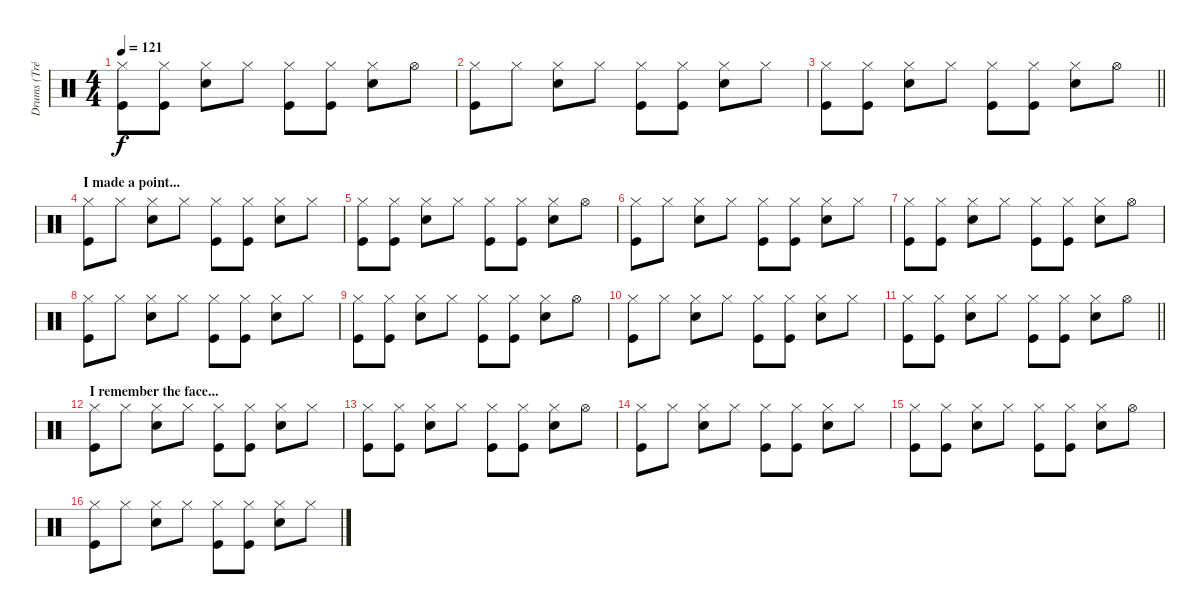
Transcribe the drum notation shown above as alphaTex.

\track ("Drums (Tré)" "Drums (Tré") {instrument percussion}
\staff {score}
\articulation defaults
\ts (4 4)
\tempo 121
\clef neutral
\ks c
("Hi-Hat (closed)" "Kick (hit)").8{dy f} ("Hi-Hat (closed)" "Kick (hit)").8 ("Hi-Hat (closed)" "Snare (hit) 2").8 "Hi-Hat (closed)".8 ("Hi-Hat (closed)" "Kick (hit)").8 ("Hi-Hat (closed)" "Kick (hit)").8 ("Hi-Hat (closed)" "Snare (hit) 2").8 "Hi-Hat (open)".8 |
("Hi-Hat (closed)" "Kick (hit)").8 "Hi-Hat (closed)".8 ("Hi-Hat (closed)" "Snare (hit) 2").8 "Hi-Hat (closed)".8 ("Hi-Hat (closed)" "Kick (hit)").8 ("Hi-Hat (closed)" "Kick (hit)").8 ("Hi-Hat (closed)" "Snare (hit) 2").8 "Hi-Hat (closed)".8 |
\barLineRight lightlight
("Hi-Hat (closed)" "Kick (hit)").8 ("Hi-Hat (closed)" "Kick (hit)").8 ("Hi-Hat (closed)" "Snare (hit) 2").8 "Hi-Hat (closed)".8 ("Hi-Hat (closed)" "Kick (hit)").8 ("Hi-Hat (closed)" "Kick (hit)").8 ("Hi-Hat (closed)" "Snare (hit) 2").8 "Hi-Hat (open)".8 |
\section ("" "I made a point...")
("Hi-Hat (closed)" "Kick (hit)").8 "Hi-Hat (closed)".8 ("Hi-Hat (closed)" "Snare (hit) 2").8 "Hi-Hat (closed)".8 ("Hi-Hat (closed)" "Kick (hit)").8 ("Hi-Hat (closed)" "Kick (hit)").8 ("Hi-Hat (closed)" "Snare (hit) 2").8 "Hi-Hat (closed)".8 |
("Hi-Hat (closed)" "Kick (hit)").8 ("Hi-Hat (closed)" "Kick (hit)").8 ("Hi-Hat (closed)" "Snare (hit) 2").8 "Hi-Hat (closed)".8 ("Hi-Hat (closed)" "Kick (hit)").8 ("Hi-Hat (closed)" "Kick (hit)").8 ("Hi-Hat (closed)" "Snare (hit) 2").8 "Hi-Hat (open)".8 |
("Hi-Hat (closed)" "Kick (hit)").8 "Hi-Hat (closed)".8 ("Hi-Hat (closed)" "Snare (hit) 2").8 "Hi-Hat (closed)".8 ("Hi-Hat (closed)" "Kick (hit)").8 ("Hi-Hat (closed)" "Kick (hit)").8 ("Hi-Hat (closed)" "Snare (hit) 2").8 "Hi-Hat (closed)".8 |
("Hi-Hat (closed)" "Kick (hit)").8 ("Hi-Hat (closed)" "Kick (hit)").8 ("Hi-Hat (closed)" "Snare (hit) 2").8 "Hi-Hat (closed)".8 ("Hi-Hat (closed)" "Kick (hit)").8 ("Hi-Hat (closed)" "Kick (hit)").8 ("Hi-Hat (closed)" "Snare (hit) 2").8 "Hi-Hat (open)".8 |
("Hi-Hat (closed)" "Kick (hit)").8 "Hi-Hat (closed)".8 ("Hi-Hat (closed)" "Snare (hit) 2").8 "Hi-Hat (closed)".8 ("Hi-Hat (closed)" "Kick (hit)").8 ("Hi-Hat (closed)" "Kick (hit)").8 ("Hi-Hat (closed)" "Snare (hit) 2").8 "Hi-Hat (closed)".8 |
("Hi-Hat (closed)" "Kick (hit)").8 ("Hi-Hat (closed)" "Kick (hit)").8 ("Hi-Hat (closed)" "Snare (hit) 2").8 "Hi-Hat (closed)".8 ("Hi-Hat (closed)" "Kick (hit)").8 ("Hi-Hat (closed)" "Kick (hit)").8 ("Hi-Hat (closed)" "Snare (hit) 2").8 "Hi-Hat (open)".8 |
("Hi-Hat (closed)" "Kick (hit)").8 "Hi-Hat (closed)".8 ("Hi-Hat (closed)" "Snare (hit) 2").8 "Hi-Hat (closed)".8 ("Hi-Hat (closed)" "Kick (hit)").8 ("Hi-Hat (closed)" "Kick (hit)").8 ("Hi-Hat (closed)" "Snare (hit) 2").8 "Hi-Hat (closed)".8 |
\barLineRight lightlight
("Hi-Hat (closed)" "Kick (hit)").8 ("Hi-Hat (closed)" "Kick (hit)").8 ("Hi-Hat (closed)" "Snare (hit) 2").8 "Hi-Hat (closed)".8 ("Hi-Hat (closed)" "Kick (hit)").8 ("Hi-Hat (closed)" "Kick (hit)").8 ("Hi-Hat (closed)" "Snare (hit) 2").8 "Hi-Hat (open)".8 |
\section ("" "I remember the face...")
("Hi-Hat (closed)" "Kick (hit)").8 "Hi-Hat (closed)".8 ("Hi-Hat (closed)" "Snare (hit) 2").8 "Hi-Hat (closed)".8 ("Hi-Hat (closed)" "Kick (hit)").8 ("Hi-Hat (closed)" "Kick (hit)").8 ("Hi-Hat (closed)" "Snare (hit) 2").8 "Hi-Hat (closed)".8 |
("Hi-Hat (closed)" "Kick (hit)").8 ("Hi-Hat (closed)" "Kick (hit)").8 ("Hi-Hat (closed)" "Snare (hit) 2").8 "Hi-Hat (closed)".8 ("Hi-Hat (closed)" "Kick (hit)").8 ("Hi-Hat (closed)" "Kick (hit)").8 ("Hi-Hat (closed)" "Snare (hit) 2").8 "Hi-Hat (open)".8 |
("Hi-Hat (closed)" "Kick (hit)").8 "Hi-Hat (closed)".8 ("Hi-Hat (closed)" "Snare (hit) 2").8 "Hi-Hat (closed)".8 ("Hi-Hat (closed)" "Kick (hit)").8 ("Hi-Hat (closed)" "Kick (hit)").8 ("Hi-Hat (closed)" "Snare (hit) 2").8 "Hi-Hat (closed)".8 |
("Hi-Hat (closed)" "Kick (hit)").8 ("Hi-Hat (closed)" "Kick (hit)").8 ("Hi-Hat (closed)" "Snare (hit) 2").8 "Hi-Hat (closed)".8 ("Hi-Hat (closed)" "Kick (hit)").8 ("Hi-Hat (closed)" "Kick (hit)").8 ("Hi-Hat (closed)" "Snare (hit) 2").8 "Hi-Hat (open)".8 |
("Hi-Hat (closed)" "Kick (hit)").8 "Hi-Hat (closed)".8 ("Hi-Hat (closed)" "Snare (hit) 2").8 "Hi-Hat (closed)".8 ("Hi-Hat (closed)" "Kick (hit)").8 ("Hi-Hat (closed)" "Kick (hit)").8 ("Hi-Hat (closed)" "Snare (hit) 2").8 "Hi-Hat (closed)".8
